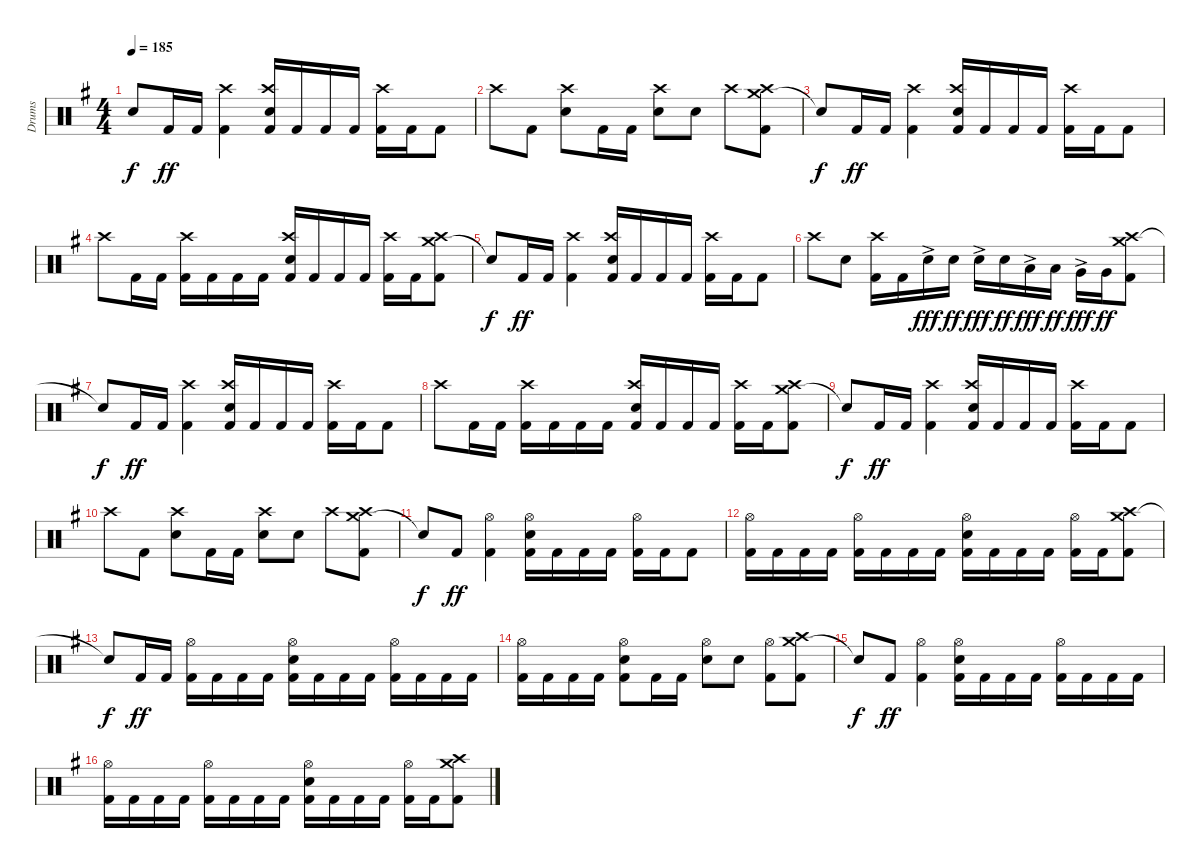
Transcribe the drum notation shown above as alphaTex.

\track ("Drums" "Drums") {instrument percussion}
\staff {score}
\articulation defaults
\ts (4 4)
\tempo 185
\clef neutral
\ks g "Snare (hit)"{t}.8{dy f} "Kick (hit) 2".16{dy ff} "Kick (hit) 2".16
("Crash high (hit)" "Kick (hit) 2").4 ("Crash high (hit)" "Electric Snare (hit)" "Kick (hit) 2").16 "Kick (hit) 2".16 "Kick (hit) 2".16 "Kick (hit) 2".16 ("Crash high (hit)" "Kick (hit) 2").16 "Kick (hit) 2".16 "Kick (hit) 2".8 |
"Crash high (hit)".8 "Kick (hit) 2".8 ("Crash high (hit)" "Electric Snare (hit)").8 "Kick (hit) 2".16 "Kick (hit) 2".16 ("Crash high (hit)" "Electric Snare (hit)").8 "Electric Snare (hit)".8 "Crash high (hit)".8 ("Crash medium (hit)" "Crash high (hit)" "Kick (hit) 2").8 |
"Snare (hit)"{t}.8{dy f} "Kick (hit) 2".16{dy ff} "Kick (hit) 2".16 ("Crash high (hit)" "Kick (hit) 2").4 ("Crash high (hit)" "Electric Snare (hit)" "Kick (hit) 2").16 "Kick (hit) 2".16 "Kick (hit) 2".16 "Kick (hit) 2".16 ("Crash high (hit)" "Kick (hit) 2").16 "Kick (hit) 2".16 "Kick (hit) 2".8 |
"Crash high (hit)".8 "Kick (hit) 2".16 "Kick (hit) 2".16 ("Crash high (hit)" "Kick (hit) 2").16 "Kick (hit) 2".16 "Kick (hit) 2".16 "Kick (hit) 2".16 ("Crash high (hit)" "Electric Snare (hit)" "Kick (hit) 2").16 "Kick (hit) 2".16 "Kick (hit) 2".16 "Kick (hit) 2".16 ("Crash high (hit)" "Kick (hit) 2").16 "Kick (hit) 2".16 ("Crash medium (hit)" "Crash high (hit)" "Kick (hit) 2").8 |
"Snare (hit)"{t}.8{dy f} "Kick (hit) 2".16{dy ff} "Kick (hit) 2".16 ("Crash high (hit)" "Kick (hit) 2").4 ("Crash high (hit)" "Electric Snare (hit)" "Kick (hit) 2").16 "Kick (hit) 2".16 "Kick (hit) 2".16 "Kick (hit) 2".16 ("Crash high (hit)" "Kick (hit) 2").16 "Kick (hit) 2".16 "Kick (hit) 2".8 |
"Crash high (hit)".8 "Electric Snare (hit)".8 ("Crash high (hit)" "Kick (hit) 2").16 "Kick (hit) 2".16 "Electric Snare (hit)"{ac}.16{dy fff} "Electric Snare (hit)".16{dy ff} "Electric Snare (hit)"{ac}.16{dy fff} "Electric Snare (hit)".16{dy ff} "Low Tom (hit)"{ac}.16{dy fff} "Low Tom (hit)".16{dy ff} "Very Low Tom (hit)"{ac}.16{dy fff} "Very Low Tom (hit)".16{dy ff} ("Crash medium (hit)" "Crash high (hit)" "Kick (hit) 2").8 |
"Snare (hit)"{t}.8{dy f} "Kick (hit) 2".16{dy ff} "Kick (hit) 2".16 ("Crash high (hit)" "Kick (hit) 2").4 ("Crash high (hit)" "Electric Snare (hit)" "Kick (hit) 2").16 "Kick (hit) 2".16 "Kick (hit) 2".16 "Kick (hit) 2".16 ("Crash high (hit)" "Kick (hit) 2").16 "Kick (hit) 2".16 "Kick (hit) 2".8 |
"Crash high (hit)".8 "Kick (hit) 2".16 "Kick (hit) 2".16 ("Crash high (hit)" "Kick (hit) 2").16 "Kick (hit) 2".16 "Kick (hit) 2".16 "Kick (hit) 2".16 ("Crash high (hit)" "Electric Snare (hit)" "Kick (hit) 2").16 "Kick (hit) 2".16 "Kick (hit) 2".16 "Kick (hit) 2".16 ("Crash high (hit)" "Kick (hit) 2").16 "Kick (hit) 2".16 ("Crash medium (hit)" "Crash high (hit)" "Kick (hit) 2").8 |
"Snare (hit)"{t}.8{dy f} "Kick (hit) 2".16{dy ff} "Kick (hit) 2".16 ("Crash high (hit)" "Kick (hit) 2").4 ("Crash high (hit)" "Electric Snare (hit)" "Kick (hit) 2").16 "Kick (hit) 2".16 "Kick (hit) 2".16 "Kick (hit) 2".16 ("Crash high (hit)" "Kick (hit) 2").16 "Kick (hit) 2".16 "Kick (hit) 2".8 |
"Crash high (hit)".8 "Kick (hit) 2".8 ("Crash high (hit)" "Electric Snare (hit)").8 "Kick (hit) 2".16 "Kick (hit) 2".16 ("Crash high (hit)" "Electric Snare (hit)").8 "Electric Snare (hit)".8 "Crash high (hit)".8 ("Crash medium (hit)" "Crash high (hit)" "Kick (hit) 2").8 |
"Snare (hit)"{t}.8{dy f} "Kick (hit) 2".8{dy ff} ("Hi-Hat (open)" "Kick (hit) 2").4 ("Hi-Hat (open)" "Electric Snare (hit)" "Kick (hit) 2").16 "Kick (hit) 2".16 "Kick (hit) 2".16 "Kick (hit) 2".16 ("Hi-Hat (open)" "Kick (hit) 2").16 "Kick (hit) 2".16 "Kick (hit) 2".8 |
("Hi-Hat (open)" "Kick (hit) 2").16 "Kick (hit) 2".16 "Kick (hit) 2".16 "Kick (hit) 2".16 ("Hi-Hat (open)" "Kick (hit) 2").16 "Kick (hit) 2".16 "Kick (hit) 2".16 "Kick (hit) 2".16 ("Hi-Hat (open)" "Electric Snare (hit)" "Kick (hit) 2").16 "Kick (hit) 2".16 "Kick (hit) 2".16 "Kick (hit) 2".16 ("Hi-Hat (open)" "Kick (hit) 2").16 "Kick (hit) 2".16 ("Crash medium (hit)" "Crash high (hit)" "Kick (hit) 2").8 |
"Snare (hit)"{t}.8{dy f} "Kick (hit) 2".16{dy ff} "Kick (hit) 2".16 ("Hi-Hat (open)" "Kick (hit) 2").16 "Kick (hit) 2".16 "Kick (hit) 2".16 "Kick (hit) 2".16 ("Hi-Hat (open)" "Electric Snare (hit)" "Kick (hit) 2").16 "Kick (hit) 2".16 "Kick (hit) 2".16 "Kick (hit) 2".16 ("Hi-Hat (open)" "Kick (hit) 2").16 "Kick (hit) 2".16 "Kick (hit) 2".16 "Kick (hit) 2".16 |
("Hi-Hat (open)" "Kick (hit) 2").16 "Kick (hit) 2".16 "Kick (hit) 2".16 "Kick (hit) 2".16 ("Hi-Hat (open)" "Electric Snare (hit)" "Kick (hit) 2").8 "Kick (hit) 2".16 "Kick (hit) 2".16 ("Hi-Hat (open)" "Electric Snare (hit)").8 "Electric Snare (hit)".8 ("Hi-Hat (open)" "Kick (hit) 2").8 ("Crash medium (hit)" "Crash high (hit)" "Kick (hit) 2").8 |
"Snare (hit)"{t}.8{dy f} "Kick (hit) 2".8{dy ff} ("Hi-Hat (open)" "Kick (hit) 2").4 ("Hi-Hat (open)" "Electric Snare (hit)" "Kick (hit) 2").16 "Kick (hit) 2".16 "Kick (hit) 2".16 "Kick (hit) 2".16 ("Hi-Hat (open)" "Kick (hit) 2").16 "Kick (hit) 2".16 "Kick (hit) 2".16 "Kick (hit) 2".16 |
("Hi-Hat (open)" "Kick (hit) 2").16 "Kick (hit) 2".16 "Kick (hit) 2".16 "Kick (hit) 2".16 ("Hi-Hat (open)" "Kick (hit) 2").16 "Kick (hit) 2".16 "Kick (hit) 2".16 "Kick (hit) 2".16 ("Hi-Hat (open)" "Electric Snare (hit)" "Kick (hit) 2").16 "Kick (hit) 2".16 "Kick (hit) 2".16 "Kick (hit) 2".16 ("Hi-Hat (open)" "Kick (hit) 2").16 "Kick (hit) 2".16 ("Crash medium (hit)" "Crash high (hit)" "Kick (hit) 2").8
